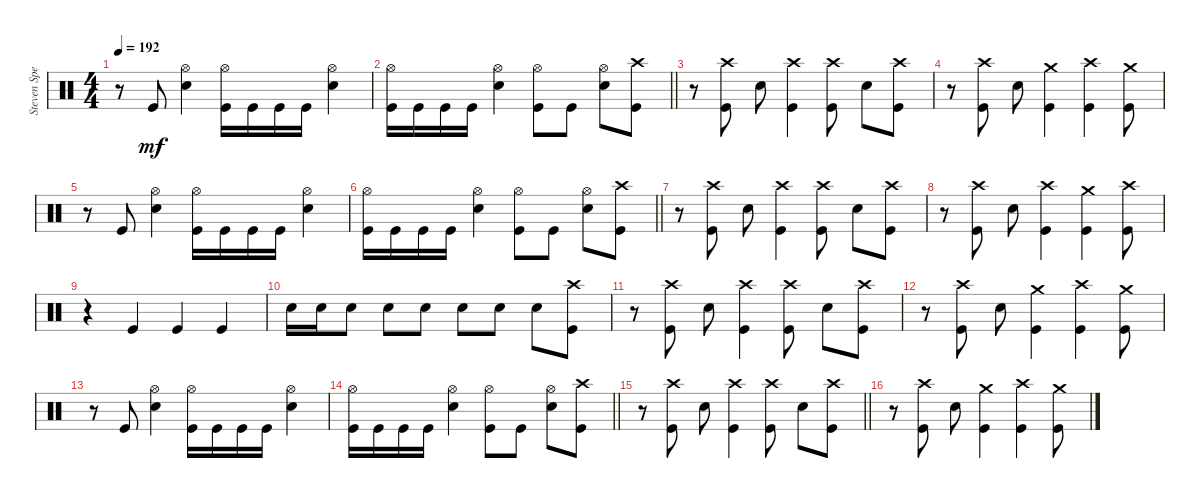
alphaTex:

\track ("Steven Spence" "Steven Spe") {instrument percussion}
\staff {score}
\articulation defaults
\ts (4 4)
\tempo 192
\clef neutral
\ks c
r.8{dy mf} "Kick (hit)".8 ("Hi-Hat (open)" "Electric Snare (hit)").4 ("Hi-Hat (open)" "Kick (hit)").16 "Kick (hit)".16 "Kick (hit)".16 "Kick (hit)".16 ("Hi-Hat (open)" "Electric Snare (hit)").4 |
\barLineRight lightlight
("Hi-Hat (open)" "Kick (hit)").16 "Kick (hit)".16 "Kick (hit)".16 "Kick (hit)".16 ("Hi-Hat (open)" "Electric Snare (hit)").4 ("Hi-Hat (open)" "Kick (hit)").8 "Kick (hit)".8 ("Hi-Hat (open)" "Electric Snare (hit)").8 ("Crash high (hit)" "Kick (hit)").8 |
r.8 ("Crash high (hit)" "Kick (hit)").8 "Electric Snare (hit)".8 ("Crash high (hit)" "Kick (hit)").4 ("Crash high (hit)" "Kick (hit)").8 "Electric Snare (hit)".8 ("Crash high (hit)" "Kick (hit)").8 |
r.8 ("Crash high (hit)" "Kick (hit)").8 "Electric Snare (hit)".8 ("Crash medium (hit)" "Kick (hit)").4 ("Crash high (hit)" "Kick (hit)").4 ("Crash medium (hit)" "Kick (hit)").8 |
r.8 "Kick (hit)".8 ("Hi-Hat (open)" "Electric Snare (hit)").4 ("Hi-Hat (open)" "Kick (hit)").16 "Kick (hit)".16 "Kick (hit)".16 "Kick (hit)".16 ("Hi-Hat (open)" "Electric Snare (hit)").4 |
\barLineRight lightlight
("Hi-Hat (open)" "Kick (hit)").16 "Kick (hit)".16 "Kick (hit)".16 "Kick (hit)".16 ("Hi-Hat (open)" "Electric Snare (hit)").4 ("Hi-Hat (open)" "Kick (hit)").8 "Kick (hit)".8 ("Hi-Hat (open)" "Electric Snare (hit)").8 ("Crash high (hit)" "Kick (hit)").8 |
r.8 ("Crash high (hit)" "Kick (hit)").8 "Electric Snare (hit)".8 ("Crash high (hit)" "Kick (hit)").4 ("Crash high (hit)" "Kick (hit)").8 "Electric Snare (hit)".8 ("Crash high (hit)" "Kick (hit)").8 |
r.8 ("Crash high (hit)" "Kick (hit)").8 "Electric Snare (hit)".8 ("Crash high (hit)" "Kick (hit)").4 ("Crash medium (hit)" "Kick (hit)").4 ("Crash high (hit)" "Kick (hit)").8 |
r.4 "Kick (hit)".4 "Kick (hit)".4 "Kick (hit)".4 |
"Electric Snare (hit)".16 "Electric Snare (hit)".16 "Electric Snare (hit)".8 "Electric Snare (hit)".8 "Electric Snare (hit)".8 "Electric Snare (hit)".8 "Electric Snare (hit)".8 "Electric Snare (hit)".8 ("Crash high (hit)" "Kick (hit)").8 |
r.8 ("Crash high (hit)" "Kick (hit)").8 "Electric Snare (hit)".8 ("Crash high (hit)" "Kick (hit)").4 ("Crash high (hit)" "Kick (hit)").8 "Electric Snare (hit)".8 ("Crash high (hit)" "Kick (hit)").8 |
r.8 ("Crash high (hit)" "Kick (hit)").8 "Electric Snare (hit)".8 ("Crash medium (hit)" "Kick (hit)").4 ("Crash high (hit)" "Kick (hit)").4 ("Crash medium (hit)" "Kick (hit)").8 |
r.8 "Kick (hit)".8 ("Hi-Hat (open)" "Electric Snare (hit)").4 ("Hi-Hat (open)" "Kick (hit)").16 "Kick (hit)".16 "Kick (hit)".16 "Kick (hit)".16 ("Hi-Hat (open)" "Electric Snare (hit)").4 |
\barLineRight lightlight
("Hi-Hat (open)" "Kick (hit)").16 "Kick (hit)".16 "Kick (hit)".16 "Kick (hit)".16 ("Hi-Hat (open)" "Electric Snare (hit)").4 ("Hi-Hat (open)" "Kick (hit)").8 "Kick (hit)".8 ("Hi-Hat (open)" "Electric Snare (hit)").8 ("Crash high (hit)" "Kick (hit)").8 |
\barLineRight lightlight
r.8 ("Crash high (hit)" "Kick (hit)").8 "Electric Snare (hit)".8 ("Crash high (hit)" "Kick (hit)").4 ("Crash high (hit)" "Kick (hit)").8 "Electric Snare (hit)".8 ("Crash high (hit)" "Kick (hit)").8 |
r.8 ("Crash high (hit)" "Kick (hit)").8 "Electric Snare (hit)".8 ("Crash medium (hit)" "Kick (hit)").4 ("Crash high (hit)" "Kick (hit)").4 ("Crash medium (hit)" "Kick (hit)").8
